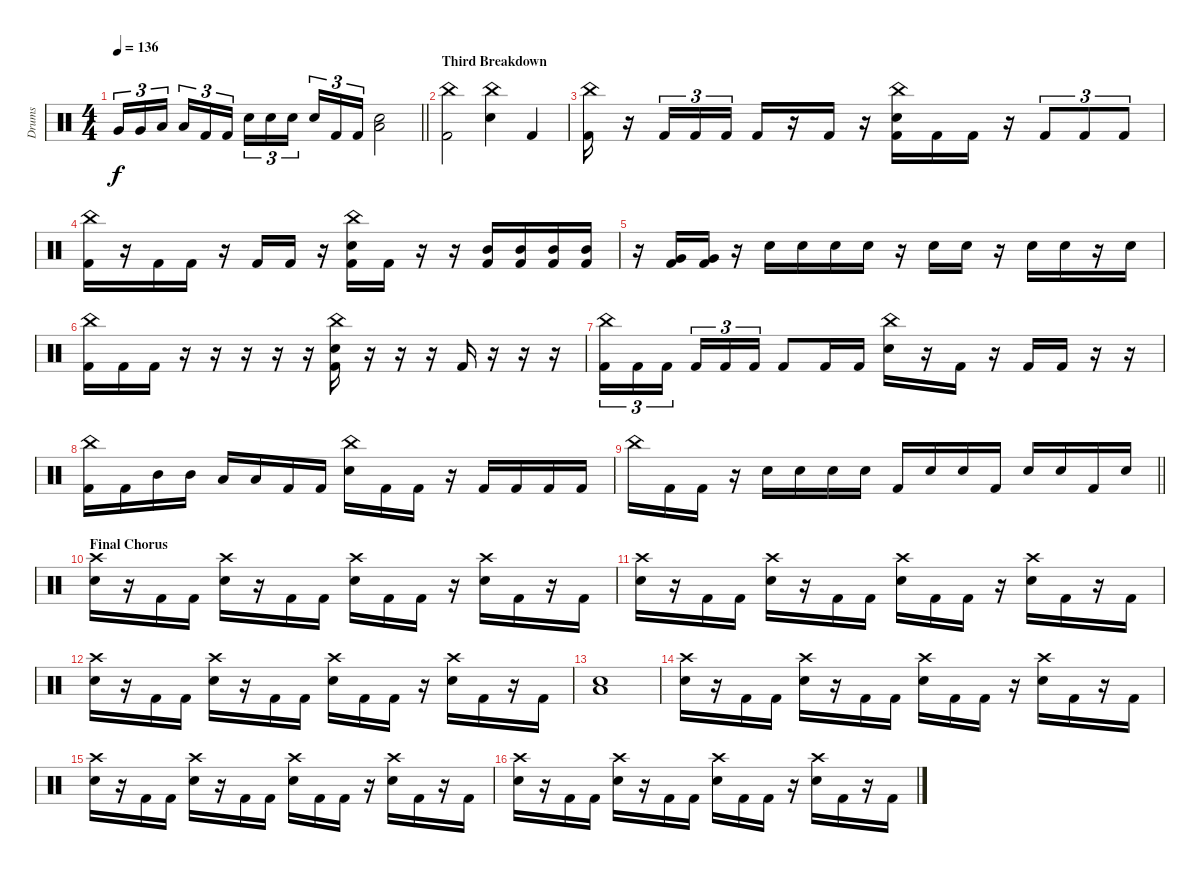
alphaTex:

\track ("Drums" "Drums") {instrument percussion}
\staff {score}
\articulation defaults
\ts (4 4)
\tempo 136
\clef neutral
\barLineRight lightlight
\ks c "Very Low Tom (hit)".16{tu (3 2) dy f} "Very Low Tom (hit)".16{tu (3 2)} "Low Floor Tom (hit)".16{tu (3 2) beam splitsecondary} "Low Floor Tom (hit)".16{tu (3 2)} "Kick (hit) 2".16{tu (3 2)} "Kick (hit) 2".16{tu (3 2)} "Electric Snare (hit)".16{tu (3 2)} "Electric Snare (hit)".16{tu (3 2)} "Electric Snare (hit)".16{tu (3 2) beam splitsecondary} "Electric Snare (hit)".16{tu (3 2)} "Kick (hit) 2".16{tu (3 2)} "Kick (hit) 2".16{tu (3 2)}
("Electric Snare (hit)" "Low Floor Tom (hit)").2 |
\section ("" "Third Breakdown")
("China (hit)" "Kick (hit) 2").2 ("China (hit)" "Electric Snare (hit)").4 "Kick (hit) 2".4 |
("China (hit)" "Kick (hit) 2").16 r.16 "Kick (hit) 2".16{tu (3 2)} "Kick (hit) 2".16{tu (3 2)} "Kick (hit) 2".16{tu (3 2)} "Kick (hit) 2".16 r.16 "Kick (hit) 2".16 r.16 ("China (hit)" "Electric Snare (hit)" "Kick (hit) 2").16 "Kick (hit) 2".16 "Kick (hit) 2".16 r.16 "Kick (hit) 2".8{tu (3 2)} "Kick (hit) 2".8{tu (3 2)} "Kick (hit) 2".8{tu (3 2)} |
("China (hit)" "Kick (hit) 2").16 r.16 "Kick (hit) 2".16 "Kick (hit) 2".16 r.16 "Kick (hit) 2".16 "Kick (hit) 2".16 r.16 ("China (hit)" "Electric Snare (hit)" "Kick (hit) 2").16 "Kick (hit) 2".16 r.16 r.16 ("Mid Tom (hit)" "Kick (hit) 2").16 ("Mid Tom (hit)" "Kick (hit) 2").16 ("Mid Tom (hit)" "Kick (hit) 2").16 ("Mid Tom (hit)" "Kick (hit) 2").16 |
r.16 ("Very Low Tom (hit)" "Kick (hit) 2").16 ("Very Low Tom (hit)" "Kick (hit) 2").16 r.16 "Electric Snare (hit)".16 "Electric Snare (hit)".16 "Electric Snare (hit)".16 "Electric Snare (hit)".16 r.16 "Electric Snare (hit)".16 "Electric Snare (hit)".16 r.16 "Electric Snare (hit)".16 "Electric Snare (hit)".16 r.16 "Electric Snare (hit)".16 |
("China (hit)" "Kick (hit) 2").16 "Kick (hit) 2".16 "Kick (hit) 2".16 r.16 r.16 r.16 r.16 r.16 ("China (hit)" "Electric Snare (hit)" "Kick (hit) 2").16 r.16 r.16 r.16 "Kick (hit) 2".16 r.16 r.16 r.16 |
("China (hit)" "Kick (hit) 2").16{tu (3 2)} "Kick (hit) 2".16{tu (3 2)} "Kick (hit) 2".16{tu (3 2) beam splitsecondary} "Kick (hit) 2".16{tu (3 2)} "Kick (hit) 2".16{tu (3 2)} "Kick (hit) 2".16{tu (3 2)} "Kick (hit) 2".8 "Kick (hit) 2".16 "Kick (hit) 2".16 ("China (hit)" "Electric Snare (hit)").16 r.16 "Kick (hit) 2".16 r.16 "Kick (hit) 2".16 "Kick (hit) 2".16 r.16 r.16 |
("China (hit)" "Kick (hit) 2").16 "Kick (hit) 2".16 "Mid Tom (hit)".16 "Mid Tom (hit)".16 "Low Tom (hit)".16 "Low Tom (hit)".16 "Kick (hit) 2".16 "Kick (hit) 2".16 ("China (hit)" "Electric Snare (hit)").16 "Kick (hit) 2".16 "Kick (hit) 2".16 r.16 "Kick (hit) 2".16 "Kick (hit) 2".16 "Kick (hit) 2".16 "Kick (hit) 2".16 |
\barLineRight lightlight "China (hit)".16 "Kick (hit) 2".16 "Kick (hit) 2".16
r.16 "Electric Snare (hit)".16 "Electric Snare (hit)".16 "Electric Snare (hit)".16 "Electric Snare (hit)".16 "Kick (hit) 2".16 "Electric Snare (hit)".16 "Electric Snare (hit)".16 "Kick (hit) 2".16 "Electric Snare (hit)".16 "Electric Snare (hit)".16 "Kick (hit) 2".16 "Electric Snare (hit)".16 |
\section ("" "Final Chorus")
("Crash high (hit)" "Electric Snare (hit)").16 r.16 "Kick (hit) 2".16 "Kick (hit) 2".16 ("Crash high (hit)" "Electric Snare (hit)").16 r.16 "Kick (hit) 2".16 "Kick (hit) 2".16 ("Crash high (hit)" "Electric Snare (hit)").16 "Kick (hit) 2".16 "Kick (hit) 2".16 r.16 ("Crash high (hit)" "Electric Snare (hit)").16 "Kick (hit) 2".16 r.16 "Kick (hit) 2".16 |
("Crash high (hit)" "Electric Snare (hit)").16 r.16 "Kick (hit) 2".16 "Kick (hit) 2".16 ("Crash high (hit)" "Electric Snare (hit)").16 r.16 "Kick (hit) 2".16 "Kick (hit) 2".16 ("Crash high (hit)" "Electric Snare (hit)").16 "Kick (hit) 2".16 "Kick (hit) 2".16 r.16 ("Crash high (hit)" "Electric Snare (hit)").16 "Kick (hit) 2".16 r.16 "Kick (hit) 2".16 |
("Crash high (hit)" "Electric Snare (hit)").16 r.16 "Kick (hit) 2".16 "Kick (hit) 2".16 ("Crash high (hit)" "Electric Snare (hit)").16 r.16 "Kick (hit) 2".16 "Kick (hit) 2".16 ("Crash high (hit)" "Electric Snare (hit)").16 "Kick (hit) 2".16 "Kick (hit) 2".16 r.16 ("Crash high (hit)" "Electric Snare (hit)").16 "Kick (hit) 2".16 r.16 "Kick (hit) 2".16 |
("Electric Snare (hit)" "Low Floor Tom (hit)").1 |
("Crash high (hit)" "Electric Snare (hit)").16 r.16 "Kick (hit) 2".16 "Kick (hit) 2".16 ("Crash high (hit)" "Electric Snare (hit)").16 r.16 "Kick (hit) 2".16 "Kick (hit) 2".16 ("Crash high (hit)" "Electric Snare (hit)").16 "Kick (hit) 2".16 "Kick (hit) 2".16 r.16 ("Crash high (hit)" "Electric Snare (hit)").16 "Kick (hit) 2".16 r.16 "Kick (hit) 2".16 |
("Crash high (hit)" "Electric Snare (hit)").16 r.16 "Kick (hit) 2".16 "Kick (hit) 2".16 ("Crash high (hit)" "Electric Snare (hit)").16 r.16 "Kick (hit) 2".16 "Kick (hit) 2".16 ("Crash high (hit)" "Electric Snare (hit)").16 "Kick (hit) 2".16 "Kick (hit) 2".16 r.16 ("Crash high (hit)" "Electric Snare (hit)").16 "Kick (hit) 2".16 r.16 "Kick (hit) 2".16 |
("Crash high (hit)" "Electric Snare (hit)").16 r.16 "Kick (hit) 2".16 "Kick (hit) 2".16 ("Crash high (hit)" "Electric Snare (hit)").16 r.16 "Kick (hit) 2".16 "Kick (hit) 2".16 ("Crash high (hit)" "Electric Snare (hit)").16 "Kick (hit) 2".16 "Kick (hit) 2".16 r.16 ("Crash high (hit)" "Electric Snare (hit)").16 "Kick (hit) 2".16 r.16 "Kick (hit) 2".16
